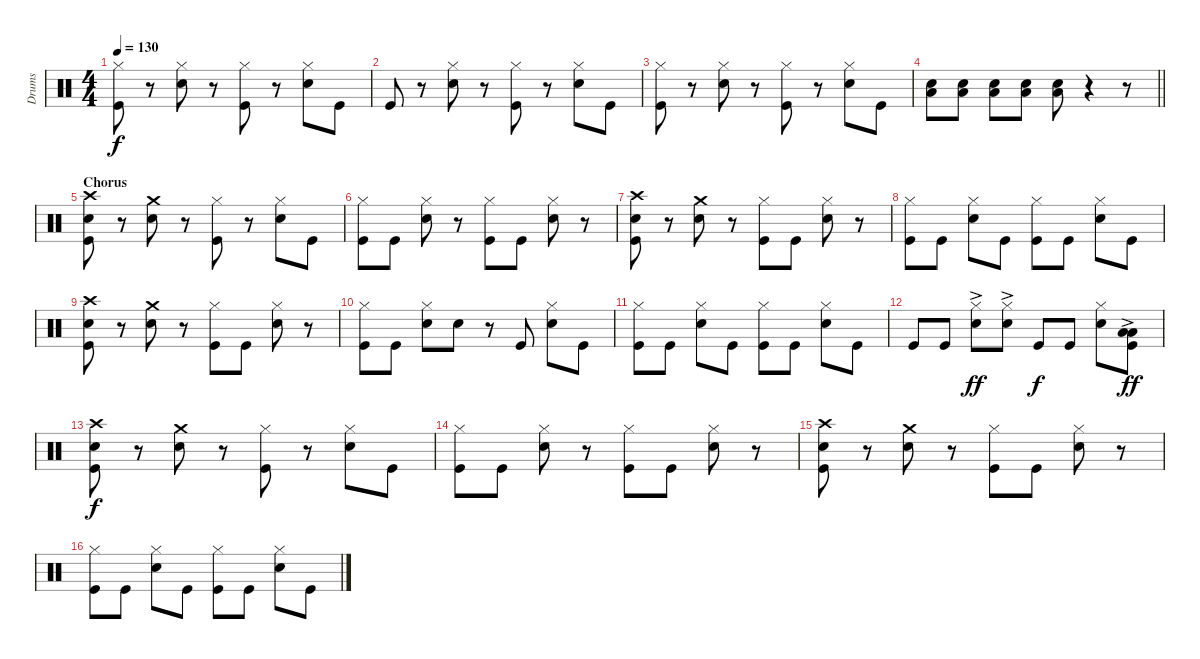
\track ("Drums" "Drums") {instrument percussion}
\staff {score}
\articulation defaults
\ts (4 4)
\tempo 130
\clef neutral
\ks c
("Kick (hit)" "Hi-Hat (closed)").8{dy f} r.8 ("Electric Snare (hit)" "Hi-Hat (closed)").8 r.8 ("Kick (hit)" "Hi-Hat (closed)").8 r.8 ("Hi-Hat (closed)" "Electric Snare (hit)").8 "Kick (hit)".8 |
"Kick (hit)".8 r.8 ("Hi-Hat (closed)" "Electric Snare (hit)").8 r.8 ("Hi-Hat (closed)" "Kick (hit)").8 r.8 ("Electric Snare (hit)" "Hi-Hat (closed)").8 "Kick (hit)".8 |
("Hi-Hat (closed)" "Kick (hit)").8 r.8 ("Hi-Hat (closed)" "Electric Snare (hit)").8 r.8 ("Hi-Hat (closed)" "Kick (hit)").8 r.8 ("Hi-Hat (closed)" "Electric Snare (hit)").8 "Kick (hit)".8 |
\barLineRight lightlight
("Low Floor Tom (hit)" "Electric Snare (hit)").8 ("Low Floor Tom (hit)" "Electric Snare (hit)").8 ("Low Floor Tom (hit)" "Electric Snare (hit)").8 ("Low Floor Tom (hit)" "Electric Snare (hit)").8 ("Low Floor Tom (hit)" "Electric Snare (hit)").8 r.4 r.8 |
\section ("" "Chorus")
("Crash high (hit)" "Electric Snare (hit)" "Kick (hit)").8 r.8 ("Electric Snare (hit)" "Crash medium (hit)").8 r.8 ("Hi-Hat (closed)" "Kick (hit)").8 r.8 ("Hi-Hat (closed)" "Electric Snare (hit)").8 "Kick (hit)".8 |
("Hi-Hat (closed)" "Kick (hit)").8 "Kick (hit)".8 ("Hi-Hat (closed)" "Electric Snare (hit)").8 r.8 ("Hi-Hat (closed)" "Kick (hit)").8 "Kick (hit)".8 ("Hi-Hat (closed)" "Electric Snare (hit)").8 r.8 |
("Crash high (hit)" "Electric Snare (hit)" "Kick (hit)").8 r.8 ("Crash medium (hit)" "Electric Snare (hit)").8 r.8 ("Hi-Hat (closed)" "Kick (hit)").8 "Kick (hit)".8 ("Hi-Hat (closed)" "Electric Snare (hit)").8 r.8 |
("Hi-Hat (closed)" "Kick (hit)").8 "Kick (hit)".8 ("Hi-Hat (closed)" "Electric Snare (hit)").8 "Kick (hit)".8 ("Hi-Hat (closed)" "Kick (hit)").8 "Kick (hit)".8 ("Hi-Hat (closed)" "Electric Snare (hit)").8 "Kick (hit)".8 |
("Crash high (hit)" "Kick (hit)" "Electric Snare (hit)").8 r.8 ("Crash medium (hit)" "Electric Snare (hit)").8 r.8 ("Hi-Hat (closed)" "Kick (hit)").8 "Kick (hit)".8 ("Hi-Hat (closed)" "Electric Snare (hit)").8 r.8 |
("Hi-Hat (closed)" "Kick (hit)").8 "Kick (hit)".8 ("Hi-Hat (closed)" "Electric Snare (hit)").8 "Electric Snare (hit)".8 r.8 "Kick (hit)".8 ("Hi-Hat (closed)" "Electric Snare (hit)").8 "Kick (hit)".8 |
("Hi-Hat (closed)" "Kick (hit)").8 "Kick (hit)".8 ("Hi-Hat (closed)" "Electric Snare (hit)").8 "Kick (hit)".8 ("Hi-Hat (closed)" "Kick (hit)").8 "Kick (hit)".8 ("Hi-Hat (closed)" "Electric Snare (hit)").8 "Kick (hit)".8 |
"Kick (hit)".8 "Kick (hit)".8 ("Hi-Hat (closed)"{ac} "Electric Snare (hit)"{ac}).8{dy ff} ("Hi-Hat (closed)"{ac} "Electric Snare (hit)"{ac}).8 "Kick (hit)".8{dy f} "Kick (hit)".8 ("Hi-Hat (closed)" "Electric Snare (hit)").8 ("Kick (hit)"{ac} "Low Floor Tom (hit)"{ac} "Low Tom (hit)"{ac}).8{dy ff} |
("Crash high (hit)" "Electric Snare (hit)" "Kick (hit)").8{dy f} r.8 ("Crash medium (hit)" "Electric Snare (hit)").8 r.8 ("Hi-Hat (closed)" "Kick (hit)").8 r.8 ("Hi-Hat (closed)" "Electric Snare (hit)").8 "Kick (hit)".8 |
("Hi-Hat (closed)" "Kick (hit)").8 "Kick (hit)".8 ("Hi-Hat (closed)" "Electric Snare (hit)").8 r.8 ("Hi-Hat (closed)" "Kick (hit)").8 "Kick (hit)".8 ("Hi-Hat (closed)" "Electric Snare (hit)").8 r.8 |
("Crash high (hit)" "Electric Snare (hit)" "Kick (hit)").8 r.8 ("Crash medium (hit)" "Electric Snare (hit)").8 r.8 ("Hi-Hat (closed)" "Kick (hit)").8 "Kick (hit)".8 ("Hi-Hat (closed)" "Electric Snare (hit)").8 r.8 |
("Hi-Hat (closed)" "Kick (hit)").8 "Kick (hit)".8 ("Hi-Hat (closed)" "Electric Snare (hit)").8 "Kick (hit)".8 ("Hi-Hat (closed)" "Kick (hit)").8 "Kick (hit)".8 ("Hi-Hat (closed)" "Electric Snare (hit)").8 "Kick (hit)".8
